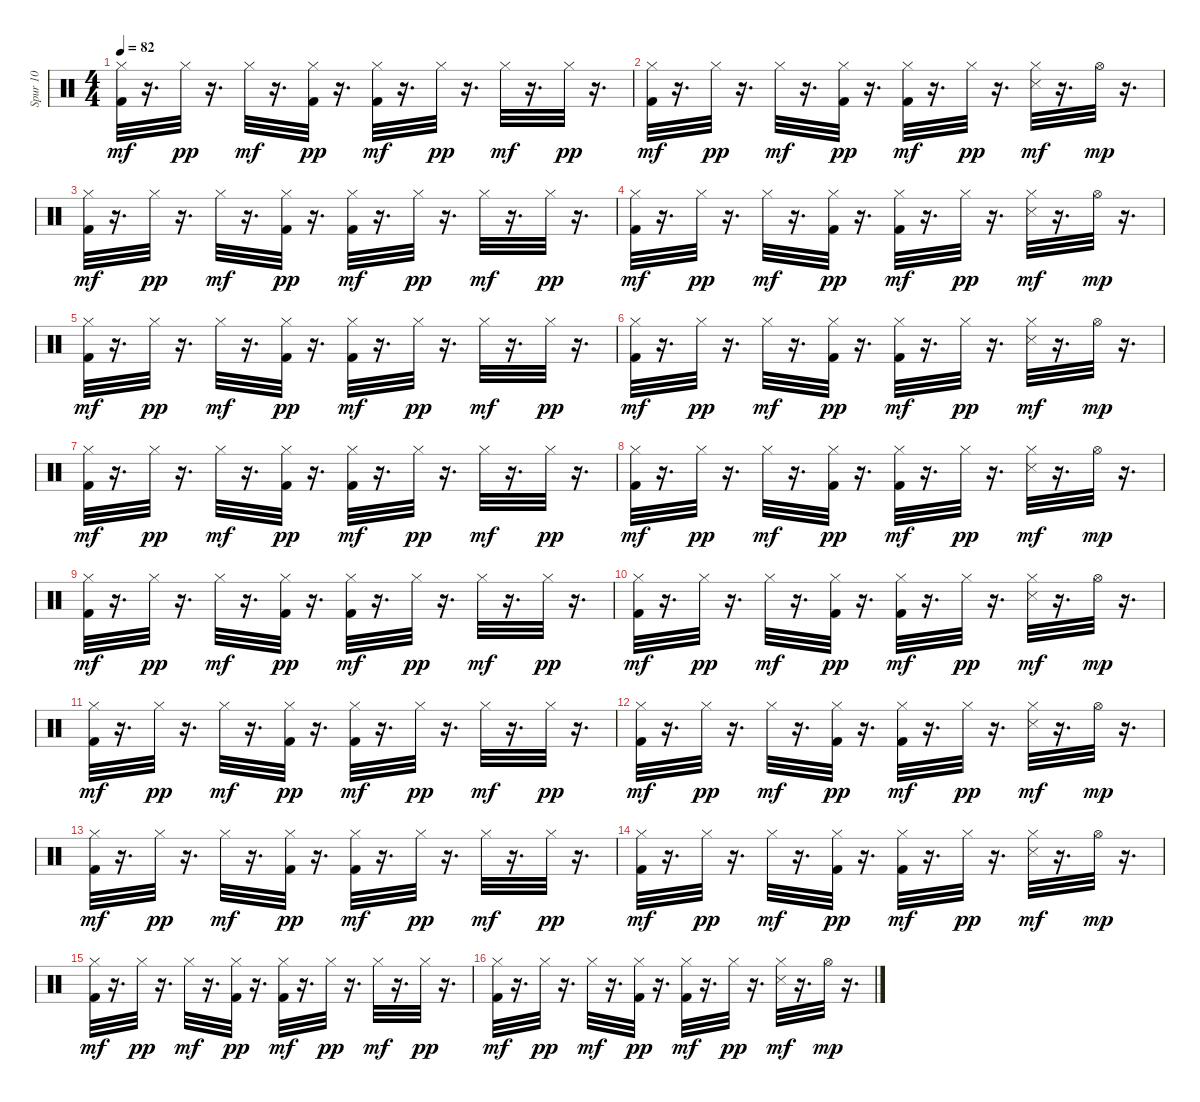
\track ("Spur 10" "Spur 10") {instrument percussion}
\staff {score}
\articulation defaults
\ts (4 4)
\tempo 82
\clef neutral
\ks c
("Kick (hit) 2" "Hi-Hat (closed)").32{dy mf} r.16{d} "Hi-Hat (closed)".32{dy pp} r.16{d} "Hi-Hat (closed)".32{dy mf} r.16{d} ("Kick (hit) 2" "Hi-Hat (closed)").32{dy pp} r.16{d} ("Kick (hit) 2" "Hi-Hat (closed)").32{dy mf} r.16{d} "Hi-Hat (closed)".32{dy pp} r.16{d} "Hi-Hat (closed)".32{dy mf} r.16{d} "Hi-Hat (closed)".32{dy pp} r.16{d} |
("Kick (hit) 2" "Hi-Hat (closed)").32{dy mf} r.16{d} "Hi-Hat (closed)".32{dy pp} r.16{d} "Hi-Hat (closed)".32{dy mf} r.16{d} ("Kick (hit) 2" "Hi-Hat (closed)").32{dy pp} r.16{d} ("Kick (hit) 2" "Hi-Hat (closed)").32{dy mf} r.16{d} "Hi-Hat (closed)".32{dy pp} r.16{d} ("Snare (side stick) 3" "Hi-Hat (closed)").32{dy mf} r.16{d} "Hi-Hat (open)".32{dy mp} r.16{d} |
("Kick (hit) 2" "Hi-Hat (closed)").32{dy mf} r.16{d} "Hi-Hat (closed)".32{dy pp} r.16{d} "Hi-Hat (closed)".32{dy mf} r.16{d} ("Kick (hit) 2" "Hi-Hat (closed)").32{dy pp} r.16{d} ("Kick (hit) 2" "Hi-Hat (closed)").32{dy mf} r.16{d} "Hi-Hat (closed)".32{dy pp} r.16{d} "Hi-Hat (closed)".32{dy mf} r.16{d} "Hi-Hat (closed)".32{dy pp} r.16{d} |
("Kick (hit) 2" "Hi-Hat (closed)").32{dy mf} r.16{d} "Hi-Hat (closed)".32{dy pp} r.16{d} "Hi-Hat (closed)".32{dy mf} r.16{d} ("Kick (hit) 2" "Hi-Hat (closed)").32{dy pp} r.16{d} ("Kick (hit) 2" "Hi-Hat (closed)").32{dy mf} r.16{d} "Hi-Hat (closed)".32{dy pp} r.16{d} ("Snare (side stick) 3" "Hi-Hat (closed)").32{dy mf} r.16{d} "Hi-Hat (open)".32{dy mp} r.16{d} |
("Kick (hit) 2" "Hi-Hat (closed)").32{dy mf} r.16{d} "Hi-Hat (closed)".32{dy pp} r.16{d} "Hi-Hat (closed)".32{dy mf} r.16{d} ("Kick (hit) 2" "Hi-Hat (closed)").32{dy pp} r.16{d} ("Kick (hit) 2" "Hi-Hat (closed)").32{dy mf} r.16{d} "Hi-Hat (closed)".32{dy pp} r.16{d} "Hi-Hat (closed)".32{dy mf} r.16{d} "Hi-Hat (closed)".32{dy pp} r.16{d} |
("Kick (hit) 2" "Hi-Hat (closed)").32{dy mf} r.16{d} "Hi-Hat (closed)".32{dy pp} r.16{d} "Hi-Hat (closed)".32{dy mf} r.16{d} ("Kick (hit) 2" "Hi-Hat (closed)").32{dy pp} r.16{d} ("Kick (hit) 2" "Hi-Hat (closed)").32{dy mf} r.16{d} "Hi-Hat (closed)".32{dy pp} r.16{d} ("Snare (side stick) 3" "Hi-Hat (closed)").32{dy mf} r.16{d} "Hi-Hat (open)".32{dy mp} r.16{d} |
("Kick (hit) 2" "Hi-Hat (closed)").32{dy mf} r.16{d} "Hi-Hat (closed)".32{dy pp} r.16{d} "Hi-Hat (closed)".32{dy mf} r.16{d} ("Kick (hit) 2" "Hi-Hat (closed)").32{dy pp} r.16{d} ("Kick (hit) 2" "Hi-Hat (closed)").32{dy mf} r.16{d} "Hi-Hat (closed)".32{dy pp} r.16{d} "Hi-Hat (closed)".32{dy mf} r.16{d} "Hi-Hat (closed)".32{dy pp} r.16{d} |
("Kick (hit) 2" "Hi-Hat (closed)").32{dy mf} r.16{d} "Hi-Hat (closed)".32{dy pp} r.16{d} "Hi-Hat (closed)".32{dy mf} r.16{d} ("Kick (hit) 2" "Hi-Hat (closed)").32{dy pp} r.16{d} ("Kick (hit) 2" "Hi-Hat (closed)").32{dy mf} r.16{d} "Hi-Hat (closed)".32{dy pp} r.16{d} ("Snare (side stick) 3" "Hi-Hat (closed)").32{dy mf} r.16{d} "Hi-Hat (open)".32{dy mp} r.16{d} |
("Kick (hit) 2" "Hi-Hat (closed)").32{dy mf} r.16{d} "Hi-Hat (closed)".32{dy pp} r.16{d} "Hi-Hat (closed)".32{dy mf} r.16{d} ("Kick (hit) 2" "Hi-Hat (closed)").32{dy pp} r.16{d} ("Kick (hit) 2" "Hi-Hat (closed)").32{dy mf} r.16{d} "Hi-Hat (closed)".32{dy pp} r.16{d} "Hi-Hat (closed)".32{dy mf} r.16{d} "Hi-Hat (closed)".32{dy pp} r.16{d} |
("Kick (hit) 2" "Hi-Hat (closed)").32{dy mf} r.16{d} "Hi-Hat (closed)".32{dy pp} r.16{d} "Hi-Hat (closed)".32{dy mf} r.16{d} ("Kick (hit) 2" "Hi-Hat (closed)").32{dy pp} r.16{d} ("Kick (hit) 2" "Hi-Hat (closed)").32{dy mf} r.16{d} "Hi-Hat (closed)".32{dy pp} r.16{d} ("Snare (side stick) 3" "Hi-Hat (closed)").32{dy mf} r.16{d} "Hi-Hat (open)".32{dy mp} r.16{d} |
("Kick (hit) 2" "Hi-Hat (closed)").32{dy mf} r.16{d} "Hi-Hat (closed)".32{dy pp} r.16{d} "Hi-Hat (closed)".32{dy mf} r.16{d} ("Kick (hit) 2" "Hi-Hat (closed)").32{dy pp} r.16{d} ("Kick (hit) 2" "Hi-Hat (closed)").32{dy mf} r.16{d} "Hi-Hat (closed)".32{dy pp} r.16{d} "Hi-Hat (closed)".32{dy mf} r.16{d} "Hi-Hat (closed)".32{dy pp} r.16{d} |
("Kick (hit) 2" "Hi-Hat (closed)").32{dy mf} r.16{d} "Hi-Hat (closed)".32{dy pp} r.16{d} "Hi-Hat (closed)".32{dy mf} r.16{d} ("Kick (hit) 2" "Hi-Hat (closed)").32{dy pp} r.16{d} ("Kick (hit) 2" "Hi-Hat (closed)").32{dy mf} r.16{d} "Hi-Hat (closed)".32{dy pp} r.16{d} ("Snare (side stick) 3" "Hi-Hat (closed)").32{dy mf} r.16{d} "Hi-Hat (open)".32{dy mp} r.16{d} |
("Kick (hit) 2" "Hi-Hat (closed)").32{dy mf} r.16{d} "Hi-Hat (closed)".32{dy pp} r.16{d} "Hi-Hat (closed)".32{dy mf} r.16{d} ("Kick (hit) 2" "Hi-Hat (closed)").32{dy pp} r.16{d} ("Kick (hit) 2" "Hi-Hat (closed)").32{dy mf} r.16{d} "Hi-Hat (closed)".32{dy pp} r.16{d} "Hi-Hat (closed)".32{dy mf} r.16{d} "Hi-Hat (closed)".32{dy pp} r.16{d} |
("Kick (hit) 2" "Hi-Hat (closed)").32{dy mf} r.16{d} "Hi-Hat (closed)".32{dy pp} r.16{d} "Hi-Hat (closed)".32{dy mf} r.16{d} ("Kick (hit) 2" "Hi-Hat (closed)").32{dy pp} r.16{d} ("Kick (hit) 2" "Hi-Hat (closed)").32{dy mf} r.16{d} "Hi-Hat (closed)".32{dy pp} r.16{d} ("Snare (side stick) 3" "Hi-Hat (closed)").32{dy mf} r.16{d} "Hi-Hat (open)".32{dy mp} r.16{d} |
("Kick (hit) 2" "Hi-Hat (closed)").32{dy mf} r.16{d} "Hi-Hat (closed)".32{dy pp} r.16{d} "Hi-Hat (closed)".32{dy mf} r.16{d} ("Kick (hit) 2" "Hi-Hat (closed)").32{dy pp} r.16{d} ("Kick (hit) 2" "Hi-Hat (closed)").32{dy mf} r.16{d} "Hi-Hat (closed)".32{dy pp} r.16{d} "Hi-Hat (closed)".32{dy mf} r.16{d} "Hi-Hat (closed)".32{dy pp} r.16{d} |
("Kick (hit) 2" "Hi-Hat (closed)").32{dy mf} r.16{d} "Hi-Hat (closed)".32{dy pp} r.16{d} "Hi-Hat (closed)".32{dy mf} r.16{d} ("Kick (hit) 2" "Hi-Hat (closed)").32{dy pp} r.16{d} ("Kick (hit) 2" "Hi-Hat (closed)").32{dy mf} r.16{d} "Hi-Hat (closed)".32{dy pp} r.16{d} ("Snare (side stick) 3" "Hi-Hat (closed)").32{dy mf} r.16{d} "Hi-Hat (open)".32{dy mp} r.16{d}
